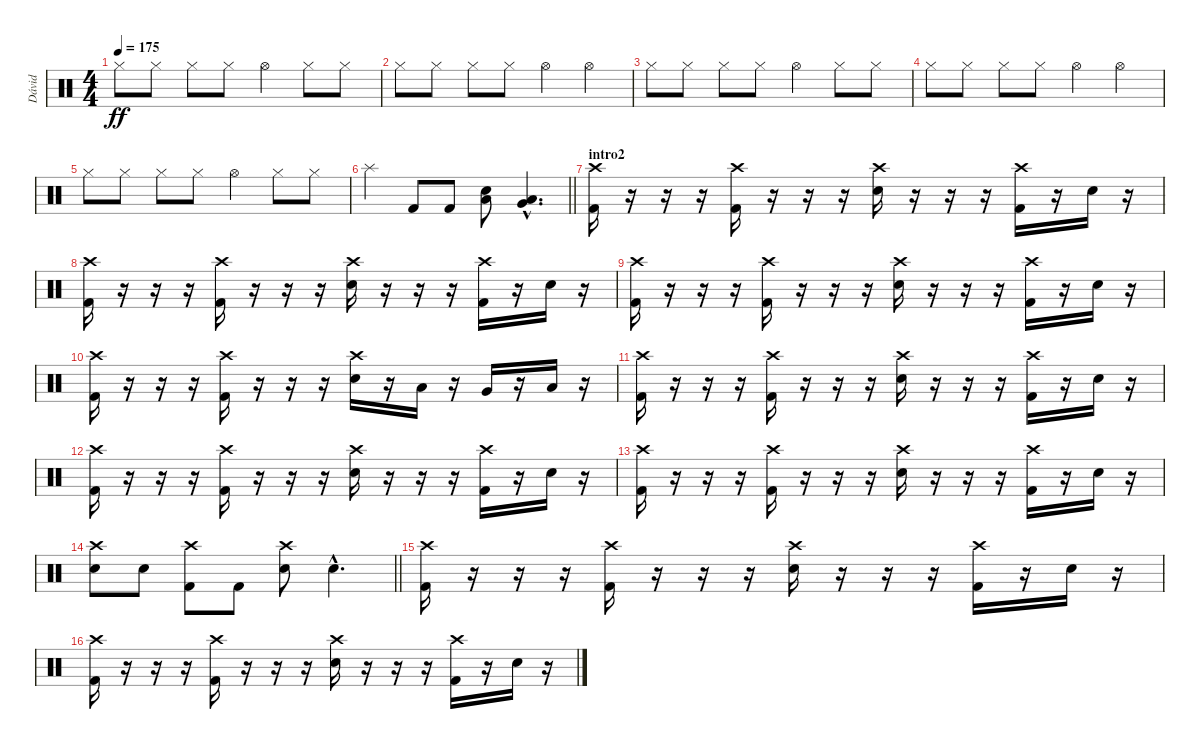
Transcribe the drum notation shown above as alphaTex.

\track ("Dávid" "Dávid") {instrument percussion}
\staff {score}
\articulation defaults
\ts (4 4)
\tempo 175
\clef neutral
\ks c "Hi-Hat (closed)".8{dy ff} "Hi-Hat (closed)".8 "Hi-Hat (closed)".8 "Hi-Hat (closed)".8 "Hi-Hat (open)".4 "Hi-Hat (closed)".8 "Hi-Hat (closed)".8
|
"Hi-Hat (closed)".8 "Hi-Hat (closed)".8 "Hi-Hat (closed)".8 "Hi-Hat (closed)".8 "Hi-Hat (open)".4 "Hi-Hat (open)".4 |
"Hi-Hat (closed)".8 "Hi-Hat (closed)".8 "Hi-Hat (closed)".8 "Hi-Hat (closed)".8 "Hi-Hat (open)".4 "Hi-Hat (closed)".8 "Hi-Hat (closed)".8 |
"Hi-Hat (closed)".8 "Hi-Hat (closed)".8 "Hi-Hat (closed)".8 "Hi-Hat (closed)".8 "Hi-Hat (open)".4 "Hi-Hat (open)".4 |
"Hi-Hat (closed)".8 "Hi-Hat (closed)".8 "Hi-Hat (closed)".8 "Hi-Hat (closed)".8 "Hi-Hat (open)".4 "Hi-Hat (closed)".8 "Hi-Hat (closed)".8 |
\barLineRight lightlight "Splash (hit)".4{volume 16} "Kick (hit) 2".8 "Kick (hit) 2".8
("Electric Snare (hit)" "Low Tom (hit)").8 ("Low Floor Tom (hit)"{hac} "Very Low Tom (hit)"{hac}).4{d} |
\section ("" "intro2")
("Crash high (hit)" "Kick (hit) 2").16 r.16 r.16 r.16 ("Crash high (hit)" "Kick (hit) 2").16 r.16 r.16 r.16 ("Crash high (hit)" "Electric Snare (hit)").16 r.16 r.16 r.16 ("Crash high (hit)" "Kick (hit) 2").16 r.16 "Electric Snare (hit)".16 r.16 |
("Crash high (hit)" "Kick (hit) 2").16 r.16 r.16 r.16 ("Crash high (hit)" "Kick (hit) 2").16 r.16 r.16 r.16 ("Crash high (hit)" "Electric Snare (hit)").16 r.16 r.16 r.16 ("Crash high (hit)" "Kick (hit) 2").16 r.16 "Electric Snare (hit)".16 r.16 |
("Crash high (hit)" "Kick (hit) 2").16 r.16 r.16 r.16 ("Crash high (hit)" "Kick (hit) 2").16 r.16 r.16 r.16 ("Crash high (hit)" "Electric Snare (hit)").16 r.16 r.16 r.16 ("Crash high (hit)" "Kick (hit) 2").16 r.16 "Electric Snare (hit)".16 r.16 |
("Crash high (hit)" "Kick (hit) 2").16 r.16 r.16 r.16 ("Crash high (hit)" "Kick (hit) 2").16 r.16 r.16 r.16 ("Crash high (hit)" "Electric Snare (hit)").16 r.16 "Low Tom (hit)".16 r.16 "Very Low Tom (hit)".16 r.16 "Low Floor Tom (hit)".16 r.16 |
("Crash high (hit)" "Kick (hit) 2").16 r.16 r.16 r.16 ("Crash high (hit)" "Kick (hit) 2").16 r.16 r.16 r.16 ("Crash high (hit)" "Electric Snare (hit)").16 r.16 r.16 r.16 ("Crash high (hit)" "Kick (hit) 2").16 r.16 "Electric Snare (hit)".16 r.16 |
("Crash high (hit)" "Kick (hit) 2").16 r.16 r.16 r.16 ("Crash high (hit)" "Kick (hit) 2").16 r.16 r.16 r.16 ("Crash high (hit)" "Electric Snare (hit)").16 r.16 r.16 r.16 ("Crash high (hit)" "Kick (hit) 2").16 r.16 "Electric Snare (hit)".16 r.16 |
("Crash high (hit)" "Kick (hit) 2").16 r.16 r.16 r.16 ("Crash high (hit)" "Kick (hit) 2").16 r.16 r.16 r.16 ("Crash high (hit)" "Electric Snare (hit)").16 r.16 r.16 r.16 ("Crash high (hit)" "Kick (hit) 2").16 r.16 "Electric Snare (hit)".16 r.16 |
\barLineRight lightlight
("Crash high (hit)" "Electric Snare (hit)").8 "Electric Snare (hit)".8 ("Crash high (hit)" "Kick (hit) 2").8 "Kick (hit) 2".8 ("Crash high (hit)" "Electric Snare (hit)").8 "Electric Snare (hit)"{hac}.4{d} |
\section ("" "")
("Crash high (hit)" "Kick (hit) 2").16 r.16 r.16 r.16 ("Crash high (hit)" "Kick (hit) 2").16 r.16 r.16 r.16 ("Crash high (hit)" "Electric Snare (hit)").16 r.16 r.16 r.16 ("Crash high (hit)" "Kick (hit) 2").16 r.16 "Electric Snare (hit)".16 r.16 |
("Crash high (hit)" "Kick (hit) 2").16 r.16 r.16 r.16 ("Crash high (hit)" "Kick (hit) 2").16 r.16 r.16 r.16 ("Crash high (hit)" "Electric Snare (hit)").16 r.16 r.16 r.16 ("Crash high (hit)" "Kick (hit) 2").16 r.16 "Electric Snare (hit)".16 r.16
